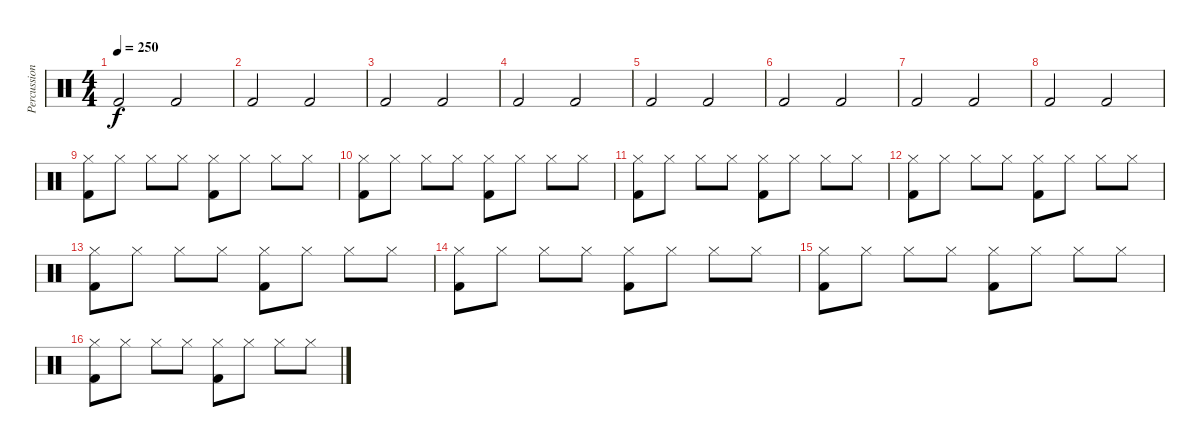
\track ("Percussion" "Percussion") {instrument percussion}
\staff {score}
\articulation defaults
\ts (4 4)
\tempo 250
\clef neutral
\ks c "Kick (hit) 2".2{dy f} "Kick (hit) 2".2
|
"Kick (hit) 2".2 "Kick (hit) 2".2 |
"Kick (hit) 2".2 "Kick (hit) 2".2 |
"Kick (hit) 2".2 "Kick (hit) 2".2 |
"Kick (hit) 2".2 "Kick (hit) 2".2 |
"Kick (hit) 2".2 "Kick (hit) 2".2 |
"Kick (hit) 2".2 "Kick (hit) 2".2 |
"Kick (hit) 2".2 "Kick (hit) 2".2 |
("Kick (hit) 2" "Hi-Hat (closed)").8 "Hi-Hat (closed)".8 "Hi-Hat (closed)".8 "Hi-Hat (closed)".8 ("Kick (hit) 2" "Hi-Hat (closed)").8 "Hi-Hat (closed)".8 "Hi-Hat (closed)".8 "Hi-Hat (closed)".8 |
("Kick (hit) 2" "Hi-Hat (closed)").8 "Hi-Hat (closed)".8 "Hi-Hat (closed)".8 "Hi-Hat (closed)".8 ("Kick (hit) 2" "Hi-Hat (closed)").8 "Hi-Hat (closed)".8 "Hi-Hat (closed)".8 "Hi-Hat (closed)".8 |
("Kick (hit) 2" "Hi-Hat (closed)").8 "Hi-Hat (closed)".8 "Hi-Hat (closed)".8 "Hi-Hat (closed)".8 ("Kick (hit) 2" "Hi-Hat (closed)").8 "Hi-Hat (closed)".8 "Hi-Hat (closed)".8 "Hi-Hat (closed)".8 |
("Kick (hit) 2" "Hi-Hat (closed)").8 "Hi-Hat (closed)".8 "Hi-Hat (closed)".8 "Hi-Hat (closed)".8 ("Kick (hit) 2" "Hi-Hat (closed)").8 "Hi-Hat (closed)".8 "Hi-Hat (closed)".8 "Hi-Hat (closed)".8 |
("Kick (hit) 2" "Hi-Hat (closed)").8 "Hi-Hat (closed)".8 "Hi-Hat (closed)".8 "Hi-Hat (closed)".8 ("Kick (hit) 2" "Hi-Hat (closed)").8 "Hi-Hat (closed)".8 "Hi-Hat (closed)".8 "Hi-Hat (closed)".8 |
("Kick (hit) 2" "Hi-Hat (closed)").8 "Hi-Hat (closed)".8 "Hi-Hat (closed)".8 "Hi-Hat (closed)".8 ("Kick (hit) 2" "Hi-Hat (closed)").8 "Hi-Hat (closed)".8 "Hi-Hat (closed)".8 "Hi-Hat (closed)".8 |
("Kick (hit) 2" "Hi-Hat (closed)").8 "Hi-Hat (closed)".8 "Hi-Hat (closed)".8 "Hi-Hat (closed)".8 ("Kick (hit) 2" "Hi-Hat (closed)").8 "Hi-Hat (closed)".8 "Hi-Hat (closed)".8 "Hi-Hat (closed)".8 |
("Kick (hit) 2" "Hi-Hat (closed)").8 "Hi-Hat (closed)".8 "Hi-Hat (closed)".8 "Hi-Hat (closed)".8 ("Kick (hit) 2" "Hi-Hat (closed)").8 "Hi-Hat (closed)".8 "Hi-Hat (closed)".8 "Hi-Hat (closed)".8
